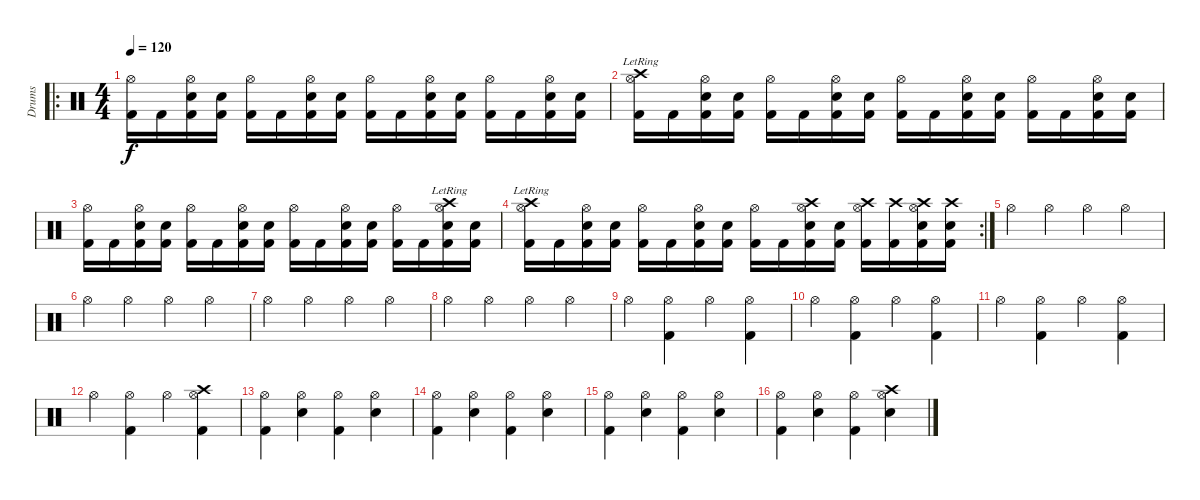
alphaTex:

\track ("Drums" "Drums") {instrument percussion}
\staff {score}
\articulation defaults
\ro
\ts (4 4)
\tempo 120
\clef neutral
\ks c
("Hi-Hat (open)" "Kick (hit) 2").16{dy f} "Kick (hit) 2".16 ("Hi-Hat (open)" "Snare (hit) 2" "Kick (hit) 2").16 ("Snare (hit) 2" "Kick (hit) 2").16 ("Hi-Hat (open)" "Kick (hit) 2").16 "Kick (hit) 2".16 ("Hi-Hat (open)" "Snare (hit) 2" "Kick (hit) 2").16 ("Snare (hit) 2" "Kick (hit) 2").16 ("Hi-Hat (open)" "Kick (hit) 2").16 "Kick (hit) 2".16 ("Hi-Hat (open)" "Snare (hit) 2" "Kick (hit) 2").16 ("Snare (hit) 2" "Kick (hit) 2").16 ("Hi-Hat (open)" "Kick (hit) 2").16 "Kick (hit) 2".16 ("Hi-Hat (open)" "Snare (hit) 2" "Kick (hit) 2").16 ("Snare (hit) 2" "Kick (hit) 2").16 |
("Crash high (hit)"{lr} "Hi-Hat (open)" "Kick (hit) 2").16 "Kick (hit) 2".16 ("Hi-Hat (open)" "Snare (hit) 2" "Kick (hit) 2").16 ("Snare (hit) 2" "Kick (hit) 2").16 ("Hi-Hat (open)" "Kick (hit) 2").16 "Kick (hit) 2".16 ("Hi-Hat (open)" "Snare (hit) 2" "Kick (hit) 2").16 ("Snare (hit) 2" "Kick (hit) 2").16 ("Hi-Hat (open)" "Kick (hit) 2").16 "Kick (hit) 2".16 ("Hi-Hat (open)" "Snare (hit) 2" "Kick (hit) 2").16 ("Snare (hit) 2" "Kick (hit) 2").16 ("Hi-Hat (open)" "Kick (hit) 2").16 "Kick (hit) 2".16 ("Hi-Hat (open)" "Snare (hit) 2" "Kick (hit) 2").16 ("Snare (hit) 2" "Kick (hit) 2").16 |
("Hi-Hat (open)" "Kick (hit) 2").16 "Kick (hit) 2".16 ("Hi-Hat (open)" "Snare (hit) 2" "Kick (hit) 2").16 ("Snare (hit) 2" "Kick (hit) 2").16 ("Hi-Hat (open)" "Kick (hit) 2").16 "Kick (hit) 2".16 ("Hi-Hat (open)" "Snare (hit) 2" "Kick (hit) 2").16 ("Snare (hit) 2" "Kick (hit) 2").16 ("Hi-Hat (open)" "Kick (hit) 2").16 "Kick (hit) 2".16 ("Hi-Hat (open)" "Snare (hit) 2" "Kick (hit) 2").16 ("Snare (hit) 2" "Kick (hit) 2").16 ("Hi-Hat (open)" "Kick (hit) 2").16 "Kick (hit) 2".16 ("Crash high (hit)"{lr} "Hi-Hat (open)" "Snare (hit) 2" "Kick (hit) 2").16 ("Snare (hit) 2" "Kick (hit) 2").16 |
\rc 2
("Crash high (hit)"{lr} "Hi-Hat (open)" "Kick (hit) 2").16 "Kick (hit) 2".16 ("Hi-Hat (open)" "Snare (hit) 2" "Kick (hit) 2").16 ("Snare (hit) 2" "Kick (hit) 2").16 ("Hi-Hat (open)" "Kick (hit) 2").16 "Kick (hit) 2".16 ("Hi-Hat (open)" "Snare (hit) 2" "Kick (hit) 2").16 ("Snare (hit) 2" "Kick (hit) 2").16 ("Hi-Hat (open)" "Kick (hit) 2").16 "Kick (hit) 2".16 ("Crash high (hit)" "Hi-Hat (open)" "Snare (hit) 2" "Kick (hit) 2").16 ("Snare (hit) 2" "Kick (hit) 2").16 ("Crash high (hit)" "Hi-Hat (open)" "Kick (hit) 2").16 ("Crash high (hit)" "Kick (hit) 2").16 ("Crash high (hit)" "Hi-Hat (open)" "Snare (hit) 2" "Kick (hit) 2").16 ("Crash high (hit)" "Snare (hit) 2" "Kick (hit) 2").16 |
"Hi-Hat (open)".4 "Hi-Hat (open)".4 "Hi-Hat (open)".4 "Hi-Hat (open)".4 |
"Hi-Hat (open)".4 "Hi-Hat (open)".4 "Hi-Hat (open)".4 "Hi-Hat (open)".4 |
"Hi-Hat (open)".4 "Hi-Hat (open)".4 "Hi-Hat (open)".4 "Hi-Hat (open)".4 |
"Hi-Hat (open)".4 "Hi-Hat (open)".4 "Hi-Hat (open)".4 "Hi-Hat (open)".4 |
"Hi-Hat (open)".4 ("Hi-Hat (open)" "Kick (hit) 2").4 "Hi-Hat (open)".4 ("Hi-Hat (open)" "Kick (hit) 2").4 |
"Hi-Hat (open)".4 ("Hi-Hat (open)" "Kick (hit) 2").4 "Hi-Hat (open)".4 ("Hi-Hat (open)" "Kick (hit) 2").4 |
"Hi-Hat (open)".4 ("Hi-Hat (open)" "Kick (hit) 2").4 "Hi-Hat (open)".4 ("Hi-Hat (open)" "Kick (hit) 2").4 |
"Hi-Hat (open)".4 ("Hi-Hat (open)" "Kick (hit) 2").4 "Hi-Hat (open)".4 ("Hi-Hat (open)" "Crash high (hit)" "Kick (hit) 2").4 |
("Hi-Hat (open)" "Kick (hit) 2").4 ("Hi-Hat (open)" "Snare (hit) 2").4 ("Hi-Hat (open)" "Kick (hit) 2").4 ("Hi-Hat (open)" "Snare (hit) 2").4 |
("Hi-Hat (open)" "Kick (hit) 2").4 ("Hi-Hat (open)" "Snare (hit) 2").4 ("Hi-Hat (open)" "Kick (hit) 2").4 ("Hi-Hat (open)" "Snare (hit) 2").4 |
("Hi-Hat (open)" "Kick (hit) 2").4 ("Hi-Hat (open)" "Snare (hit) 2").4 ("Hi-Hat (open)" "Kick (hit) 2").4 ("Hi-Hat (open)" "Snare (hit) 2").4 |
("Hi-Hat (open)" "Kick (hit) 2").4 ("Hi-Hat (open)" "Snare (hit) 2").4 ("Hi-Hat (open)" "Kick (hit) 2").4 ("Hi-Hat (open)" "Crash high (hit)" "Snare (hit) 2").4
